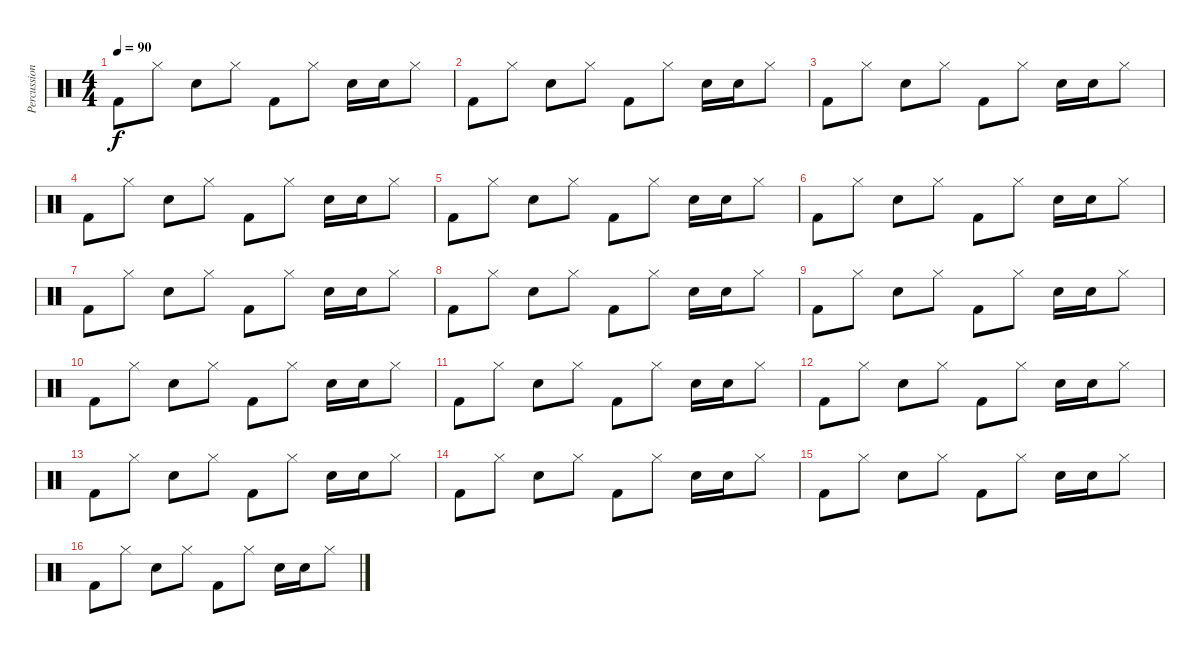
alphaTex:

\track ("Percussion" "Percussion") {instrument percussion}
\staff {score}
\articulation defaults
\ts (4 4)
\tempo 90
\clef neutral
\ks c "Kick (hit) 2".8{dy f} "Hi-Hat (closed)".8 "Snare (hit) 2".8 "Hi-Hat (closed)".8 "Kick (hit) 2".8 "Hi-Hat (closed)".8 "Snare (hit) 2".16 "Snare (hit) 2".16 "Hi-Hat (closed)".8
|
"Kick (hit) 2".8 "Hi-Hat (closed)".8 "Snare (hit) 2".8 "Hi-Hat (closed)".8 "Kick (hit) 2".8 "Hi-Hat (closed)".8 "Snare (hit) 2".16 "Snare (hit) 2".16 "Hi-Hat (closed)".8 |
"Kick (hit) 2".8 "Hi-Hat (closed)".8 "Snare (hit) 2".8 "Hi-Hat (closed)".8 "Kick (hit) 2".8 "Hi-Hat (closed)".8 "Snare (hit) 2".16 "Snare (hit) 2".16 "Hi-Hat (closed)".8 |
"Kick (hit) 2".8 "Hi-Hat (closed)".8 "Snare (hit) 2".8 "Hi-Hat (closed)".8 "Kick (hit) 2".8 "Hi-Hat (closed)".8 "Snare (hit) 2".16 "Snare (hit) 2".16 "Hi-Hat (closed)".8 |
"Kick (hit) 2".8 "Hi-Hat (closed)".8 "Snare (hit) 2".8 "Hi-Hat (closed)".8 "Kick (hit) 2".8 "Hi-Hat (closed)".8 "Snare (hit) 2".16 "Snare (hit) 2".16 "Hi-Hat (closed)".8 |
"Kick (hit) 2".8 "Hi-Hat (closed)".8 "Snare (hit) 2".8 "Hi-Hat (closed)".8 "Kick (hit) 2".8 "Hi-Hat (closed)".8 "Snare (hit) 2".16 "Snare (hit) 2".16 "Hi-Hat (closed)".8 |
"Kick (hit) 2".8 "Hi-Hat (closed)".8 "Snare (hit) 2".8 "Hi-Hat (closed)".8 "Kick (hit) 2".8 "Hi-Hat (closed)".8 "Snare (hit) 2".16 "Snare (hit) 2".16 "Hi-Hat (closed)".8 |
"Kick (hit) 2".8 "Hi-Hat (closed)".8 "Snare (hit) 2".8 "Hi-Hat (closed)".8 "Kick (hit) 2".8 "Hi-Hat (closed)".8 "Snare (hit) 2".16 "Snare (hit) 2".16 "Hi-Hat (closed)".8 |
"Kick (hit) 2".8 "Hi-Hat (closed)".8 "Snare (hit) 2".8 "Hi-Hat (closed)".8 "Kick (hit) 2".8 "Hi-Hat (closed)".8 "Snare (hit) 2".16 "Snare (hit) 2".16 "Hi-Hat (closed)".8 |
"Kick (hit) 2".8 "Hi-Hat (closed)".8 "Snare (hit) 2".8 "Hi-Hat (closed)".8 "Kick (hit) 2".8 "Hi-Hat (closed)".8 "Snare (hit) 2".16 "Snare (hit) 2".16 "Hi-Hat (closed)".8 |
"Kick (hit) 2".8 "Hi-Hat (closed)".8 "Snare (hit) 2".8 "Hi-Hat (closed)".8 "Kick (hit) 2".8 "Hi-Hat (closed)".8 "Snare (hit) 2".16 "Snare (hit) 2".16 "Hi-Hat (closed)".8 |
"Kick (hit) 2".8 "Hi-Hat (closed)".8 "Snare (hit) 2".8 "Hi-Hat (closed)".8 "Kick (hit) 2".8 "Hi-Hat (closed)".8 "Snare (hit) 2".16 "Snare (hit) 2".16 "Hi-Hat (closed)".8 |
"Kick (hit) 2".8 "Hi-Hat (closed)".8 "Snare (hit) 2".8 "Hi-Hat (closed)".8 "Kick (hit) 2".8 "Hi-Hat (closed)".8 "Snare (hit) 2".16 "Snare (hit) 2".16 "Hi-Hat (closed)".8 |
"Kick (hit) 2".8 "Hi-Hat (closed)".8 "Snare (hit) 2".8 "Hi-Hat (closed)".8 "Kick (hit) 2".8 "Hi-Hat (closed)".8 "Snare (hit) 2".16 "Snare (hit) 2".16 "Hi-Hat (closed)".8 |
"Kick (hit) 2".8 "Hi-Hat (closed)".8 "Snare (hit) 2".8 "Hi-Hat (closed)".8 "Kick (hit) 2".8 "Hi-Hat (closed)".8 "Snare (hit) 2".16 "Snare (hit) 2".16 "Hi-Hat (closed)".8 |
"Kick (hit) 2".8 "Hi-Hat (closed)".8 "Snare (hit) 2".8 "Hi-Hat (closed)".8 "Kick (hit) 2".8 "Hi-Hat (closed)".8 "Snare (hit) 2".16 "Snare (hit) 2".16 "Hi-Hat (closed)".8
